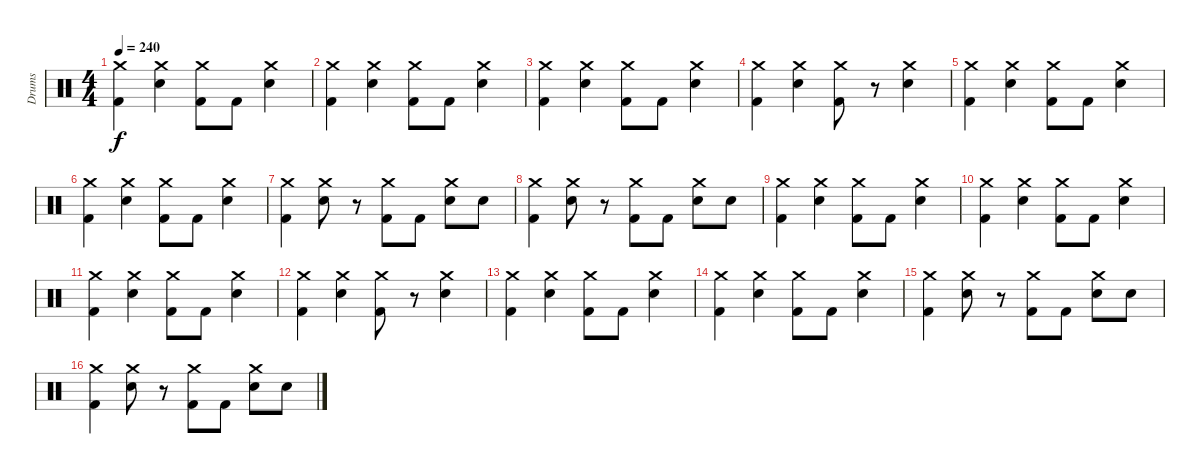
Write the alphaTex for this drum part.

\track ("Drums" "Drums") {instrument percussion}
\staff {score}
\articulation defaults
\ts (4 4)
\tempo 240
\clef neutral
\ks c
("Crash medium (hit)" "Kick (hit) 2").4{dy f} ("Crash medium (hit)" "Snare (hit) 2").4 ("Crash medium (hit)" "Kick (hit) 2").8 "Kick (hit) 2".8 ("Crash medium (hit)" "Snare (hit) 2").4 |
("Crash medium (hit)" "Kick (hit) 2").4 ("Crash medium (hit)" "Snare (hit) 2").4 ("Crash medium (hit)" "Kick (hit) 2").8 "Kick (hit) 2".8 ("Crash medium (hit)" "Snare (hit) 2").4 |
("Crash medium (hit)" "Kick (hit) 2").4 ("Crash medium (hit)" "Snare (hit) 2").4 ("Crash medium (hit)" "Kick (hit) 2").8 "Kick (hit) 2".8 ("Crash medium (hit)" "Snare (hit) 2").4 |
("Crash medium (hit)" "Kick (hit) 2").4 ("Crash medium (hit)" "Snare (hit) 2").4 ("Crash medium (hit)" "Kick (hit) 2").8 r.8 ("Crash medium (hit)" "Snare (hit) 2").4 |
("Crash medium (hit)" "Kick (hit) 2").4 ("Crash medium (hit)" "Snare (hit) 2").4 ("Crash medium (hit)" "Kick (hit) 2").8 "Kick (hit) 2".8 ("Crash medium (hit)" "Snare (hit) 2").4 |
("Crash medium (hit)" "Kick (hit) 2").4 ("Crash medium (hit)" "Snare (hit) 2").4 ("Crash medium (hit)" "Kick (hit) 2").8 "Kick (hit) 2".8 ("Crash medium (hit)" "Snare (hit) 2").4 |
("Crash medium (hit)" "Kick (hit) 2").4 ("Crash medium (hit)" "Snare (hit) 2").8 r.8 ("Crash medium (hit)" "Kick (hit) 2").8 "Kick (hit) 2".8 ("Crash medium (hit)" "Snare (hit) 2").8 "Snare (hit) 2".8 |
("Crash medium (hit)" "Kick (hit) 2").4 ("Crash medium (hit)" "Snare (hit) 2").8 r.8 ("Crash medium (hit)" "Kick (hit) 2").8 "Kick (hit) 2".8 ("Crash medium (hit)" "Snare (hit) 2").8 "Snare (hit) 2".8 |
("Crash medium (hit)" "Kick (hit) 2").4 ("Crash medium (hit)" "Snare (hit) 2").4 ("Crash medium (hit)" "Kick (hit) 2").8 "Kick (hit) 2".8 ("Crash medium (hit)" "Snare (hit) 2").4 |
("Crash medium (hit)" "Kick (hit) 2").4 ("Crash medium (hit)" "Snare (hit) 2").4 ("Crash medium (hit)" "Kick (hit) 2").8 "Kick (hit) 2".8 ("Crash medium (hit)" "Snare (hit) 2").4 |
("Crash medium (hit)" "Kick (hit) 2").4 ("Crash medium (hit)" "Snare (hit) 2").4 ("Crash medium (hit)" "Kick (hit) 2").8 "Kick (hit) 2".8 ("Crash medium (hit)" "Snare (hit) 2").4 |
("Crash medium (hit)" "Kick (hit) 2").4 ("Crash medium (hit)" "Snare (hit) 2").4 ("Crash medium (hit)" "Kick (hit) 2").8 r.8 ("Crash medium (hit)" "Snare (hit) 2").4 |
("Crash medium (hit)" "Kick (hit) 2").4 ("Crash medium (hit)" "Snare (hit) 2").4 ("Crash medium (hit)" "Kick (hit) 2").8 "Kick (hit) 2".8 ("Crash medium (hit)" "Snare (hit) 2").4 |
("Crash medium (hit)" "Kick (hit) 2").4 ("Crash medium (hit)" "Snare (hit) 2").4 ("Crash medium (hit)" "Kick (hit) 2").8 "Kick (hit) 2".8 ("Crash medium (hit)" "Snare (hit) 2").4 |
("Crash medium (hit)" "Kick (hit) 2").4 ("Crash medium (hit)" "Snare (hit) 2").8 r.8 ("Crash medium (hit)" "Kick (hit) 2").8 "Kick (hit) 2".8 ("Crash medium (hit)" "Snare (hit) 2").8 "Snare (hit) 2".8 |
("Crash medium (hit)" "Kick (hit) 2").4 ("Crash medium (hit)" "Snare (hit) 2").8 r.8 ("Crash medium (hit)" "Kick (hit) 2").8 "Kick (hit) 2".8 ("Crash medium (hit)" "Snare (hit) 2").8 "Snare (hit) 2".8
